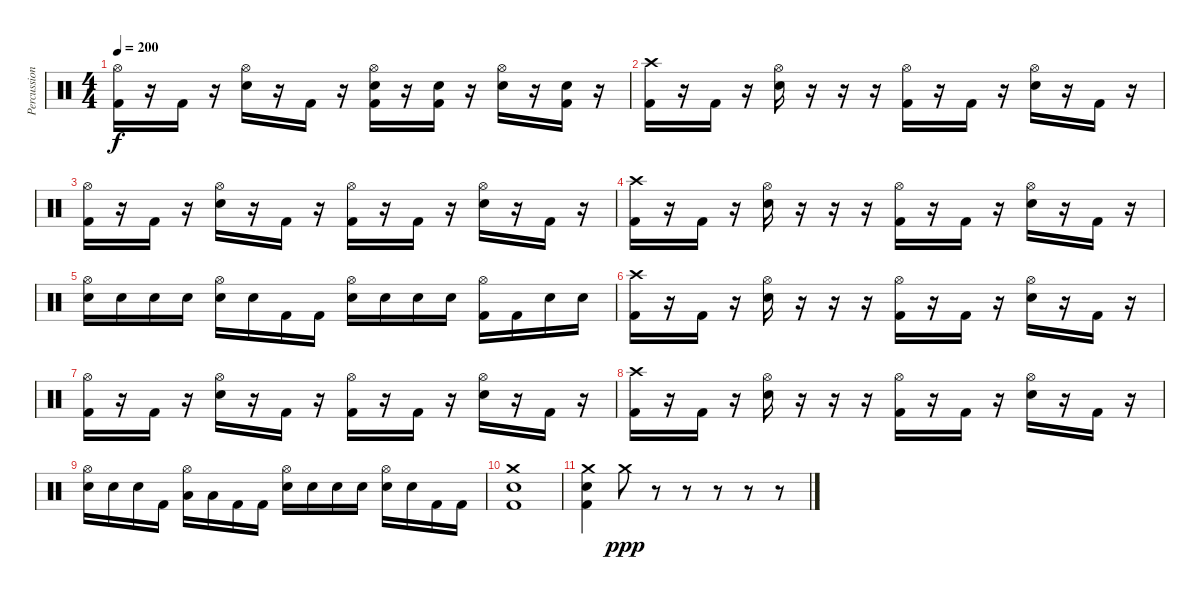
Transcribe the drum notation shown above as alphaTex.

\track ("Percussion" "Percussion") {instrument percussion}
\staff {score}
\articulation defaults
\ts (4 4)
\tempo 200
\clef neutral
\ks c
("Hi-Hat (open)" "Kick (hit) 2").16{dy f} r.16 "Kick (hit) 2".16 r.16 ("Hi-Hat (open)" "Snare (hit) 2").16 r.16 "Kick (hit) 2".16 r.16 ("Hi-Hat (open)" "Snare (hit) 2" "Kick (hit) 2").16 r.16 ("Snare (hit) 2" "Kick (hit) 2").16 r.16 ("Hi-Hat (open)" "Snare (hit) 2").16 r.16 ("Snare (hit) 2" "Kick (hit) 2").16 r.16 |
("Crash high (hit)" "Kick (hit) 2").16 r.16 "Kick (hit) 2".16 r.16 ("Hi-Hat (open)" "Snare (hit) 2").16 r.16 r.16 r.16 ("Hi-Hat (open)" "Kick (hit) 2").16 r.16 "Kick (hit) 2".16 r.16 ("Hi-Hat (open)" "Snare (hit) 2").16 r.16 "Kick (hit) 2".16 r.16 |
("Hi-Hat (open)" "Kick (hit) 2").16 r.16 "Kick (hit) 2".16 r.16 ("Hi-Hat (open)" "Snare (hit) 2").16 r.16 "Kick (hit) 2".16 r.16 ("Hi-Hat (open)" "Kick (hit) 2").16 r.16 "Kick (hit) 2".16 r.16 ("Hi-Hat (open)" "Snare (hit) 2").16 r.16 "Kick (hit) 2".16 r.16 |
("Crash high (hit)" "Kick (hit) 2").16 r.16 "Kick (hit) 2".16 r.16 ("Hi-Hat (open)" "Snare (hit) 2").16 r.16 r.16 r.16 ("Hi-Hat (open)" "Kick (hit) 2").16 r.16 "Kick (hit) 2".16 r.16 ("Hi-Hat (open)" "Snare (hit) 2").16 r.16 "Kick (hit) 2".16 r.16 |
("Hi-Hat (open)" "Snare (hit) 2").16 "Snare (hit) 2".16 "Snare (hit) 2".16 "Snare (hit) 2".16 ("Hi-Hat (open)" "Snare (hit) 2").16 "Snare (hit) 2".16 "Kick (hit) 2".16 "Kick (hit) 2".16 ("Hi-Hat (open)" "Snare (hit) 2").16 "Snare (hit) 2".16 "Snare (hit) 2".16 "Snare (hit) 2".16 ("Hi-Hat (open)" "Kick (hit) 2").16 "Kick (hit) 2".16 "Snare (hit) 2".16 "Snare (hit) 2".16 |
("Crash high (hit)" "Kick (hit) 2").16 r.16 "Kick (hit) 2".16 r.16 ("Hi-Hat (open)" "Snare (hit) 2").16 r.16 r.16 r.16 ("Hi-Hat (open)" "Kick (hit) 2").16 r.16 "Kick (hit) 2".16 r.16 ("Hi-Hat (open)" "Snare (hit) 2").16 r.16 "Kick (hit) 2".16 r.16 |
("Hi-Hat (open)" "Kick (hit) 2").16 r.16 "Kick (hit) 2".16 r.16 ("Hi-Hat (open)" "Snare (hit) 2").16 r.16 "Kick (hit) 2".16 r.16 ("Hi-Hat (open)" "Kick (hit) 2").16 r.16 "Kick (hit) 2".16 r.16 ("Hi-Hat (open)" "Snare (hit) 2").16 r.16 "Kick (hit) 2".16 r.16 |
("Crash high (hit)" "Kick (hit) 2").16 r.16 "Kick (hit) 2".16 r.16 ("Hi-Hat (open)" "Snare (hit) 2").16 r.16 r.16 r.16 ("Hi-Hat (open)" "Kick (hit) 2").16 r.16 "Kick (hit) 2".16 r.16 ("Hi-Hat (open)" "Snare (hit) 2").16 r.16 "Kick (hit) 2".16 r.16 |
("Hi-Hat (open)" "Snare (hit) 2").16 "Snare (hit) 2".16 "Snare (hit) 2".16 "Kick (hit) 2".16 ("Hi-Hat (open)" "Low Tom (hit)").16 "Low Tom (hit)".16 "Kick (hit) 2".16 "Kick (hit) 2".16 ("Hi-Hat (open)" "Snare (hit) 2").16 "Snare (hit) 2".16 "Snare (hit) 2".16 "Snare (hit) 2".16 ("Hi-Hat (open)" "Snare (hit) 2").16 "Snare (hit) 2".16 "Kick (hit) 2".16 "Kick (hit) 2".16 |
("Crash medium (hit)" "Snare (hit) 2" "Kick (hit) 2").1 |
("Crash medium (hit)" "Snare (hit) 2" "Kick (hit) 2").4 "Crash medium (hit)".8{dy ppp} r.8 r.8 r.8 r.8 r.8
